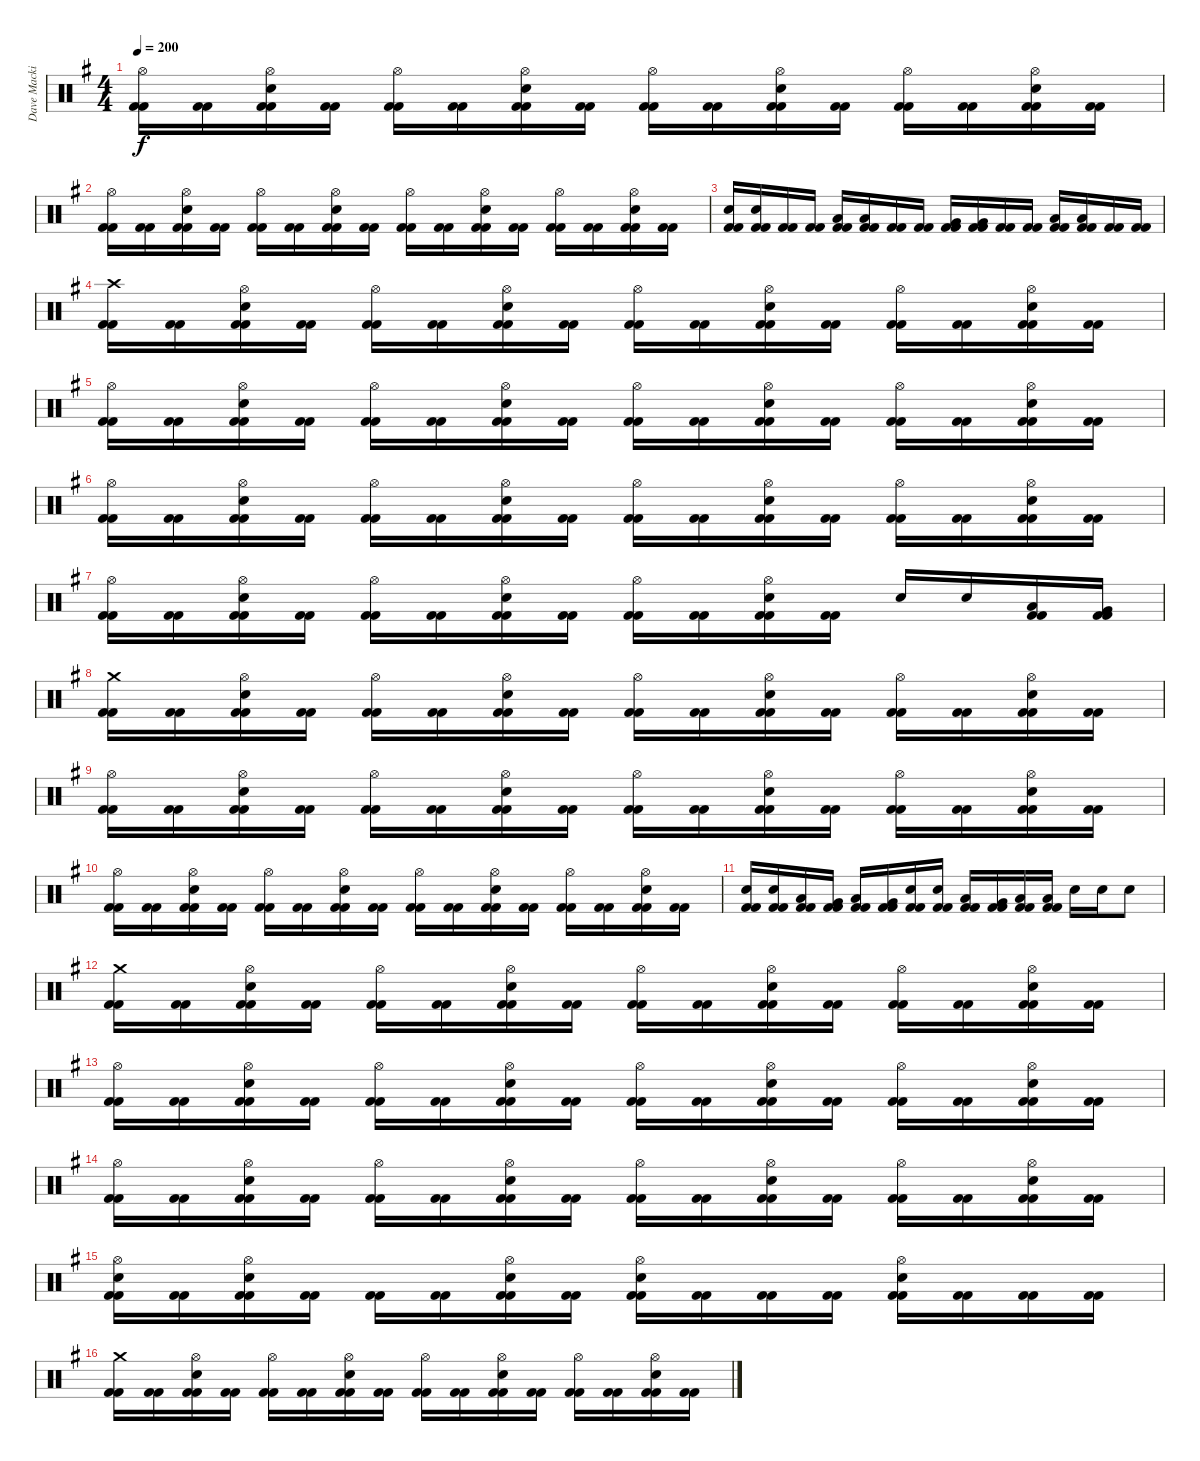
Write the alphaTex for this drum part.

\track ("Dave Mackintosh" "Dave Macki") {instrument percussion}
\staff {score}
\articulation defaults
\ts (4 4)
\tempo 200
\clef neutral
\ks g
("Hi-Hat (open)" "Kick (hit) 2" "Kick (hit) 2").16{dy f} ("Kick (hit) 2" "Kick (hit) 2").16 ("Hi-Hat (open)" "Electric Snare (hit)" "Kick (hit) 2" "Kick (hit) 2").16 ("Kick (hit) 2" "Kick (hit) 2").16 ("Hi-Hat (open)" "Kick (hit) 2" "Kick (hit) 2").16 ("Kick (hit) 2" "Kick (hit) 2").16 ("Hi-Hat (open)" "Electric Snare (hit)" "Kick (hit) 2" "Kick (hit) 2").16 ("Kick (hit) 2" "Kick (hit) 2").16 ("Hi-Hat (open)" "Kick (hit) 2" "Kick (hit) 2").16 ("Kick (hit) 2" "Kick (hit) 2").16 ("Hi-Hat (open)" "Electric Snare (hit)" "Kick (hit) 2" "Kick (hit) 2").16 ("Kick (hit) 2" "Kick (hit) 2").16 ("Hi-Hat (open)" "Kick (hit) 2" "Kick (hit) 2").16 ("Kick (hit) 2" "Kick (hit) 2").16 ("Hi-Hat (open)" "Electric Snare (hit)" "Kick (hit) 2" "Kick (hit) 2").16 ("Kick (hit) 2" "Kick (hit) 2").16 |
("Hi-Hat (open)" "Kick (hit) 2" "Kick (hit) 2").16 ("Kick (hit) 2" "Kick (hit) 2").16 ("Hi-Hat (open)" "Electric Snare (hit)" "Kick (hit) 2" "Kick (hit) 2").16 ("Kick (hit) 2" "Kick (hit) 2").16 ("Hi-Hat (open)" "Kick (hit) 2" "Kick (hit) 2").16 ("Kick (hit) 2" "Kick (hit) 2").16 ("Hi-Hat (open)" "Electric Snare (hit)" "Kick (hit) 2" "Kick (hit) 2").16 ("Kick (hit) 2" "Kick (hit) 2").16 ("Hi-Hat (open)" "Kick (hit) 2" "Kick (hit) 2").16 ("Kick (hit) 2" "Kick (hit) 2").16 ("Hi-Hat (open)" "Electric Snare (hit)" "Kick (hit) 2" "Kick (hit) 2").16 ("Kick (hit) 2" "Kick (hit) 2").16 ("Hi-Hat (open)" "Kick (hit) 2" "Kick (hit) 2").16 ("Kick (hit) 2" "Kick (hit) 2").16 ("Hi-Hat (open)" "Electric Snare (hit)" "Kick (hit) 2" "Kick (hit) 2").16 ("Kick (hit) 2" "Kick (hit) 2").16 |
("Electric Snare (hit)" "Kick (hit) 2" "Kick (hit) 2").16 ("Electric Snare (hit)" "Kick (hit) 2" "Kick (hit) 2").16 ("Kick (hit) 2" "Kick (hit) 2").16 ("Kick (hit) 2" "Kick (hit) 2").16 ("Low Tom (hit)" "Kick (hit) 2" "Kick (hit) 2").16 ("Low Tom (hit)" "Kick (hit) 2" "Kick (hit) 2").16 ("Kick (hit) 2" "Kick (hit) 2").16 ("Kick (hit) 2" "Kick (hit) 2").16 ("Very Low Tom (hit)" "Kick (hit) 2" "Kick (hit) 2").16 ("Very Low Tom (hit)" "Kick (hit) 2" "Kick (hit) 2").16 ("Kick (hit) 2" "Kick (hit) 2").16 ("Kick (hit) 2" "Kick (hit) 2").16 ("Low Floor Tom (hit)" "Kick (hit) 2" "Kick (hit) 2").16 ("Low Floor Tom (hit)" "Kick (hit) 2" "Kick (hit) 2").16 ("Kick (hit) 2" "Kick (hit) 2").16 ("Kick (hit) 2" "Kick (hit) 2").16 |
("Crash high (hit)" "Kick (hit) 2" "Kick (hit) 2").16 ("Kick (hit) 2" "Kick (hit) 2").16 ("Hi-Hat (open)" "Electric Snare (hit)" "Kick (hit) 2" "Kick (hit) 2").16 ("Kick (hit) 2" "Kick (hit) 2").16 ("Hi-Hat (open)" "Kick (hit) 2" "Kick (hit) 2").16 ("Kick (hit) 2" "Kick (hit) 2").16 ("Hi-Hat (open)" "Electric Snare (hit)" "Kick (hit) 2" "Kick (hit) 2").16 ("Kick (hit) 2" "Kick (hit) 2").16 ("Hi-Hat (open)" "Kick (hit) 2" "Kick (hit) 2").16 ("Kick (hit) 2" "Kick (hit) 2").16 ("Hi-Hat (open)" "Electric Snare (hit)" "Kick (hit) 2" "Kick (hit) 2").16 ("Kick (hit) 2" "Kick (hit) 2").16 ("Hi-Hat (open)" "Kick (hit) 2" "Kick (hit) 2").16 ("Kick (hit) 2" "Kick (hit) 2").16 ("Hi-Hat (open)" "Electric Snare (hit)" "Kick (hit) 2" "Kick (hit) 2").16 ("Kick (hit) 2" "Kick (hit) 2").16 |
("Hi-Hat (open)" "Kick (hit) 2" "Kick (hit) 2").16 ("Kick (hit) 2" "Kick (hit) 2").16 ("Hi-Hat (open)" "Electric Snare (hit)" "Kick (hit) 2" "Kick (hit) 2").16 ("Kick (hit) 2" "Kick (hit) 2").16 ("Hi-Hat (open)" "Kick (hit) 2" "Kick (hit) 2").16 ("Kick (hit) 2" "Kick (hit) 2").16 ("Hi-Hat (open)" "Electric Snare (hit)" "Kick (hit) 2" "Kick (hit) 2").16 ("Kick (hit) 2" "Kick (hit) 2").16 ("Hi-Hat (open)" "Kick (hit) 2" "Kick (hit) 2").16 ("Kick (hit) 2" "Kick (hit) 2").16 ("Hi-Hat (open)" "Electric Snare (hit)" "Kick (hit) 2" "Kick (hit) 2").16 ("Kick (hit) 2" "Kick (hit) 2").16 ("Hi-Hat (open)" "Kick (hit) 2" "Kick (hit) 2").16 ("Kick (hit) 2" "Kick (hit) 2").16 ("Hi-Hat (open)" "Electric Snare (hit)" "Kick (hit) 2" "Kick (hit) 2").16 ("Kick (hit) 2" "Kick (hit) 2").16 |
("Hi-Hat (open)" "Kick (hit) 2" "Kick (hit) 2").16 ("Kick (hit) 2" "Kick (hit) 2").16 ("Hi-Hat (open)" "Electric Snare (hit)" "Kick (hit) 2" "Kick (hit) 2").16 ("Kick (hit) 2" "Kick (hit) 2").16 ("Hi-Hat (open)" "Kick (hit) 2" "Kick (hit) 2").16 ("Kick (hit) 2" "Kick (hit) 2").16 ("Hi-Hat (open)" "Electric Snare (hit)" "Kick (hit) 2" "Kick (hit) 2").16 ("Kick (hit) 2" "Kick (hit) 2").16 ("Hi-Hat (open)" "Kick (hit) 2" "Kick (hit) 2").16 ("Kick (hit) 2" "Kick (hit) 2").16 ("Hi-Hat (open)" "Electric Snare (hit)" "Kick (hit) 2" "Kick (hit) 2").16 ("Kick (hit) 2" "Kick (hit) 2").16 ("Hi-Hat (open)" "Kick (hit) 2" "Kick (hit) 2").16 ("Kick (hit) 2" "Kick (hit) 2").16 ("Hi-Hat (open)" "Electric Snare (hit)" "Kick (hit) 2" "Kick (hit) 2").16 ("Kick (hit) 2" "Kick (hit) 2").16 |
("Hi-Hat (open)" "Kick (hit) 2" "Kick (hit) 2").16 ("Kick (hit) 2" "Kick (hit) 2").16 ("Hi-Hat (open)" "Electric Snare (hit)" "Kick (hit) 2" "Kick (hit) 2").16 ("Kick (hit) 2" "Kick (hit) 2").16 ("Hi-Hat (open)" "Kick (hit) 2" "Kick (hit) 2").16 ("Kick (hit) 2" "Kick (hit) 2").16 ("Hi-Hat (open)" "Electric Snare (hit)" "Kick (hit) 2" "Kick (hit) 2").16 ("Kick (hit) 2" "Kick (hit) 2").16 ("Hi-Hat (open)" "Kick (hit) 2" "Kick (hit) 2").16 ("Kick (hit) 2" "Kick (hit) 2").16 ("Hi-Hat (open)" "Electric Snare (hit)" "Kick (hit) 2" "Kick (hit) 2").16 ("Kick (hit) 2" "Kick (hit) 2").16 "Electric Snare (hit)".16 "Electric Snare (hit)".16 ("Low Tom (hit)" "Kick (hit) 2" "Kick (hit) 2").16 ("Very Low Tom (hit)" "Kick (hit) 2" "Kick (hit) 2").16 |
("Crash medium (hit)" "Kick (hit) 2" "Kick (hit) 2").16 ("Kick (hit) 2" "Kick (hit) 2").16 ("Hi-Hat (open)" "Electric Snare (hit)" "Kick (hit) 2" "Kick (hit) 2").16 ("Kick (hit) 2" "Kick (hit) 2").16 ("Hi-Hat (open)" "Kick (hit) 2" "Kick (hit) 2").16 ("Kick (hit) 2" "Kick (hit) 2").16 ("Hi-Hat (open)" "Electric Snare (hit)" "Kick (hit) 2" "Kick (hit) 2").16 ("Kick (hit) 2" "Kick (hit) 2").16 ("Hi-Hat (open)" "Kick (hit) 2" "Kick (hit) 2").16 ("Kick (hit) 2" "Kick (hit) 2").16 ("Hi-Hat (open)" "Electric Snare (hit)" "Kick (hit) 2" "Kick (hit) 2").16 ("Kick (hit) 2" "Kick (hit) 2").16 ("Hi-Hat (open)" "Kick (hit) 2" "Kick (hit) 2").16 ("Kick (hit) 2" "Kick (hit) 2").16 ("Hi-Hat (open)" "Electric Snare (hit)" "Kick (hit) 2" "Kick (hit) 2").16 ("Kick (hit) 2" "Kick (hit) 2").16 |
("Hi-Hat (open)" "Kick (hit) 2" "Kick (hit) 2").16 ("Kick (hit) 2" "Kick (hit) 2").16 ("Hi-Hat (open)" "Electric Snare (hit)" "Kick (hit) 2" "Kick (hit) 2").16 ("Kick (hit) 2" "Kick (hit) 2").16 ("Hi-Hat (open)" "Kick (hit) 2" "Kick (hit) 2").16 ("Kick (hit) 2" "Kick (hit) 2").16 ("Hi-Hat (open)" "Electric Snare (hit)" "Kick (hit) 2" "Kick (hit) 2").16 ("Kick (hit) 2" "Kick (hit) 2").16 ("Hi-Hat (open)" "Kick (hit) 2" "Kick (hit) 2").16 ("Kick (hit) 2" "Kick (hit) 2").16 ("Hi-Hat (open)" "Electric Snare (hit)" "Kick (hit) 2" "Kick (hit) 2").16 ("Kick (hit) 2" "Kick (hit) 2").16 ("Hi-Hat (open)" "Kick (hit) 2" "Kick (hit) 2").16 ("Kick (hit) 2" "Kick (hit) 2").16 ("Hi-Hat (open)" "Electric Snare (hit)" "Kick (hit) 2" "Kick (hit) 2").16 ("Kick (hit) 2" "Kick (hit) 2").16 |
("Hi-Hat (open)" "Kick (hit) 2" "Kick (hit) 2").16 ("Kick (hit) 2" "Kick (hit) 2").16 ("Hi-Hat (open)" "Electric Snare (hit)" "Kick (hit) 2" "Kick (hit) 2").16 ("Kick (hit) 2" "Kick (hit) 2").16 ("Hi-Hat (open)" "Kick (hit) 2" "Kick (hit) 2").16 ("Kick (hit) 2" "Kick (hit) 2").16 ("Hi-Hat (open)" "Electric Snare (hit)" "Kick (hit) 2" "Kick (hit) 2").16 ("Kick (hit) 2" "Kick (hit) 2").16 ("Hi-Hat (open)" "Kick (hit) 2" "Kick (hit) 2").16 ("Kick (hit) 2" "Kick (hit) 2").16 ("Hi-Hat (open)" "Electric Snare (hit)" "Kick (hit) 2" "Kick (hit) 2").16 ("Kick (hit) 2" "Kick (hit) 2").16 ("Hi-Hat (open)" "Kick (hit) 2" "Kick (hit) 2").16 ("Kick (hit) 2" "Kick (hit) 2").16 ("Hi-Hat (open)" "Electric Snare (hit)" "Kick (hit) 2" "Kick (hit) 2").16 ("Kick (hit) 2" "Kick (hit) 2").16 |
("Electric Snare (hit)" "Kick (hit) 2" "Kick (hit) 2").16 ("Electric Snare (hit)" "Kick (hit) 2" "Kick (hit) 2").16 ("Low Tom (hit)" "Kick (hit) 2" "Kick (hit) 2").16 ("Very Low Tom (hit)" "Kick (hit) 2" "Kick (hit) 2").16 ("Low Tom (hit)" "Kick (hit) 2" "Kick (hit) 2").16 ("Very Low Tom (hit)" "Kick (hit) 2" "Kick (hit) 2").16 ("Electric Snare (hit)" "Kick (hit) 2" "Kick (hit) 2").16 ("Electric Snare (hit)" "Kick (hit) 2" "Kick (hit) 2").16 ("Low Tom (hit)" "Kick (hit) 2" "Kick (hit) 2").16 ("Very Low Tom (hit)" "Kick (hit) 2" "Kick (hit) 2").16 ("Low Floor Tom (hit)" "Kick (hit) 2" "Kick (hit) 2").16 ("Low Floor Tom (hit)" "Kick (hit) 2" "Kick (hit) 2").16 "Electric Snare (hit)".16 "Electric Snare (hit)".16 "Electric Snare (hit)".8 |
("Crash medium (hit)" "Kick (hit) 2" "Kick (hit) 2").16 ("Kick (hit) 2" "Kick (hit) 2").16 ("Hi-Hat (open)" "Electric Snare (hit)" "Kick (hit) 2" "Kick (hit) 2").16 ("Kick (hit) 2" "Kick (hit) 2").16 ("Hi-Hat (open)" "Kick (hit) 2" "Kick (hit) 2").16 ("Kick (hit) 2" "Kick (hit) 2").16 ("Hi-Hat (open)" "Electric Snare (hit)" "Kick (hit) 2" "Kick (hit) 2").16 ("Kick (hit) 2" "Kick (hit) 2").16 ("Hi-Hat (open)" "Kick (hit) 2" "Kick (hit) 2").16 ("Kick (hit) 2" "Kick (hit) 2").16 ("Hi-Hat (open)" "Electric Snare (hit)" "Kick (hit) 2" "Kick (hit) 2").16 ("Kick (hit) 2" "Kick (hit) 2").16 ("Hi-Hat (open)" "Kick (hit) 2" "Kick (hit) 2").16 ("Kick (hit) 2" "Kick (hit) 2").16 ("Hi-Hat (open)" "Electric Snare (hit)" "Kick (hit) 2" "Kick (hit) 2").16 ("Kick (hit) 2" "Kick (hit) 2").16 |
("Hi-Hat (open)" "Kick (hit) 2" "Kick (hit) 2").16 ("Kick (hit) 2" "Kick (hit) 2").16 ("Hi-Hat (open)" "Electric Snare (hit)" "Kick (hit) 2" "Kick (hit) 2").16 ("Kick (hit) 2" "Kick (hit) 2").16 ("Hi-Hat (open)" "Kick (hit) 2" "Kick (hit) 2").16 ("Kick (hit) 2" "Kick (hit) 2").16 ("Hi-Hat (open)" "Electric Snare (hit)" "Kick (hit) 2" "Kick (hit) 2").16 ("Kick (hit) 2" "Kick (hit) 2").16 ("Hi-Hat (open)" "Kick (hit) 2" "Kick (hit) 2").16 ("Kick (hit) 2" "Kick (hit) 2").16 ("Hi-Hat (open)" "Electric Snare (hit)" "Kick (hit) 2" "Kick (hit) 2").16 ("Kick (hit) 2" "Kick (hit) 2").16 ("Hi-Hat (open)" "Kick (hit) 2" "Kick (hit) 2").16 ("Kick (hit) 2" "Kick (hit) 2").16 ("Hi-Hat (open)" "Electric Snare (hit)" "Kick (hit) 2" "Kick (hit) 2").16 ("Kick (hit) 2" "Kick (hit) 2").16 |
("Hi-Hat (open)" "Kick (hit) 2" "Kick (hit) 2").16 ("Kick (hit) 2" "Kick (hit) 2").16 ("Hi-Hat (open)" "Electric Snare (hit)" "Kick (hit) 2" "Kick (hit) 2").16 ("Kick (hit) 2" "Kick (hit) 2").16 ("Hi-Hat (open)" "Kick (hit) 2" "Kick (hit) 2").16 ("Kick (hit) 2" "Kick (hit) 2").16 ("Hi-Hat (open)" "Electric Snare (hit)" "Kick (hit) 2" "Kick (hit) 2").16 ("Kick (hit) 2" "Kick (hit) 2").16 ("Hi-Hat (open)" "Kick (hit) 2" "Kick (hit) 2").16 ("Kick (hit) 2" "Kick (hit) 2").16 ("Hi-Hat (open)" "Electric Snare (hit)" "Kick (hit) 2" "Kick (hit) 2").16 ("Kick (hit) 2" "Kick (hit) 2").16 ("Hi-Hat (open)" "Kick (hit) 2" "Kick (hit) 2").16 ("Kick (hit) 2" "Kick (hit) 2").16 ("Hi-Hat (open)" "Electric Snare (hit)" "Kick (hit) 2" "Kick (hit) 2").16 ("Kick (hit) 2" "Kick (hit) 2").16 |
("Hi-Hat (open)" "Electric Snare (hit)" "Kick (hit) 2" "Kick (hit) 2").16 ("Kick (hit) 2" "Kick (hit) 2").16 ("Hi-Hat (open)" "Electric Snare (hit)" "Kick (hit) 2" "Kick (hit) 2").16 ("Kick (hit) 2" "Kick (hit) 2").16 ("Kick (hit) 2" "Kick (hit) 2").16 ("Kick (hit) 2" "Kick (hit) 2").16 ("Hi-Hat (open)" "Electric Snare (hit)" "Kick (hit) 2" "Kick (hit) 2").16 ("Kick (hit) 2" "Kick (hit) 2").16 ("Hi-Hat (open)" "Electric Snare (hit)" "Kick (hit) 2" "Kick (hit) 2").16 ("Kick (hit) 2" "Kick (hit) 2").16 ("Kick (hit) 2" "Kick (hit) 2").16 ("Kick (hit) 2" "Kick (hit) 2").16 ("Hi-Hat (open)" "Electric Snare (hit)" "Kick (hit) 2" "Kick (hit) 2").16 ("Kick (hit) 2" "Kick (hit) 2").16 ("Kick (hit) 2" "Kick (hit) 2").16 ("Kick (hit) 2" "Kick (hit) 2").16 |
("Crash medium (hit)" "Kick (hit) 2" "Kick (hit) 2").16 ("Kick (hit) 2" "Kick (hit) 2").16 ("Hi-Hat (open)" "Electric Snare (hit)" "Kick (hit) 2" "Kick (hit) 2").16 ("Kick (hit) 2" "Kick (hit) 2").16 ("Hi-Hat (open)" "Kick (hit) 2" "Kick (hit) 2").16 ("Kick (hit) 2" "Kick (hit) 2").16 ("Hi-Hat (open)" "Electric Snare (hit)" "Kick (hit) 2" "Kick (hit) 2").16 ("Kick (hit) 2" "Kick (hit) 2").16 ("Hi-Hat (open)" "Kick (hit) 2" "Kick (hit) 2").16 ("Kick (hit) 2" "Kick (hit) 2").16 ("Hi-Hat (open)" "Electric Snare (hit)" "Kick (hit) 2" "Kick (hit) 2").16 ("Kick (hit) 2" "Kick (hit) 2").16 ("Hi-Hat (open)" "Kick (hit) 2" "Kick (hit) 2").16 ("Kick (hit) 2" "Kick (hit) 2").16 ("Hi-Hat (open)" "Electric Snare (hit)" "Kick (hit) 2" "Kick (hit) 2").16 ("Kick (hit) 2" "Kick (hit) 2").16
